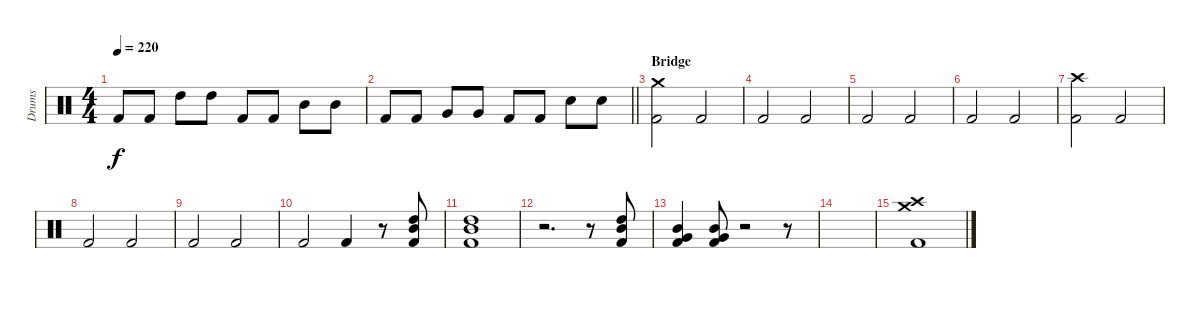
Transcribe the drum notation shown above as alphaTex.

\track ("Drums" "Drums") {instrument percussion}
\staff {score}
\articulation defaults
\ts (4 4)
\tempo 220
\clef neutral
\ks c "Kick (hit) 2".8{dy f} "Kick (hit) 2".8 "High Tom (hit)".8 "High Tom (hit)".8 "Kick (hit) 2".8 "Kick (hit) 2".8 "Mid Tom (hit)".8 "Mid Tom (hit)".8
|
\barLineRight lightlight "Kick (hit) 2".8 "Kick (hit) 2".8 "Very Low Tom (hit)".8 "Very Low Tom (hit)".8 "Kick (hit) 2".8 "Kick (hit) 2".8 "Snare (hit) 2".8 "Snare (hit) 2".8
|
\section ("" "Bridge")
("Kick (hit) 2" "Crash medium (hit)").2 "Kick (hit) 2".2 |
"Kick (hit) 2".2 "Kick (hit) 2".2 |
"Kick (hit) 2".2 "Kick (hit) 2".2 |
"Kick (hit) 2".2 "Kick (hit) 2".2 |
("Kick (hit) 2" "Crash high (hit)").2 "Kick (hit) 2".2 |
"Kick (hit) 2".2 "Kick (hit) 2".2 |
"Kick (hit) 2".2 "Kick (hit) 2".2 |
"Kick (hit) 2".2 "Kick (hit) 2".4 r.8 ("Kick (hit) 2" "High Tom (hit)" "Mid Tom (hit)").8 |
("Kick (hit) 2" "High Tom (hit)" "Mid Tom (hit)").1 |
r.2{d} r.8 ("Kick (hit) 2" "High Tom (hit)" "Mid Tom (hit)").8 |
("Kick (hit) 2" "Mid Tom (hit)" "Very Low Tom (hit)").4 ("Kick (hit) 2" "Mid Tom (hit)" "Very Low Tom (hit)").8 r.2 r.8 |
|
("Kick (hit) 2" "Crash high (hit)" "Crash medium (hit)").1
